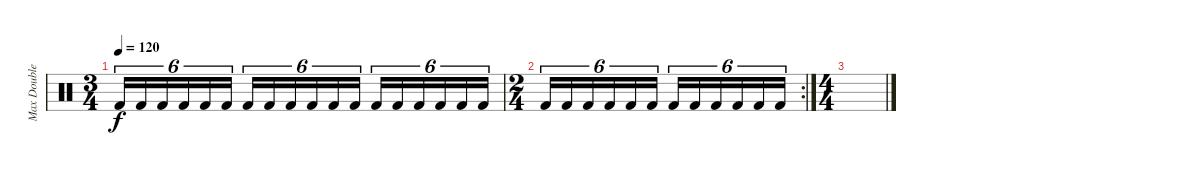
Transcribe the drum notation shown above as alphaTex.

\track ("Max Double Pedal" "Max Double") {instrument percussion}
\staff {score}
\articulation defaults
\ts (3 4)
\tempo 120
\clef neutral
\ks c "Kick (hit) 2".16{tu (6 4) dy f} "Kick (hit) 2".16{tu (6 4)} "Kick (hit) 2".16{tu (6 4)} "Kick (hit) 2".16{tu (6 4)} "Kick (hit) 2".16{tu (6 4)} "Kick (hit) 2".16{tu (6 4)} "Kick (hit) 2".16{tu (6 4)} "Kick (hit) 2".16{tu (6 4)} "Kick (hit) 2".16{tu (6 4)} "Kick (hit) 2".16{tu (6 4)} "Kick (hit) 2".16{tu (6 4)} "Kick (hit) 2".16{tu (6 4)} "Kick (hit) 2".16{tu (6 4)} "Kick (hit) 2".16{tu (6 4)} "Kick (hit) 2".16{tu (6 4)} "Kick (hit) 2".16{tu (6 4)} "Kick (hit) 2".16{tu (6 4)} "Kick (hit) 2".16{tu (6 4)}
|
\rc 2
\ts (2 4)
"Kick (hit) 2".16{tu (6 4)} "Kick (hit) 2".16{tu (6 4)} "Kick (hit) 2".16{tu (6 4)} "Kick (hit) 2".16{tu (6 4)} "Kick (hit) 2".16{tu (6 4)} "Kick (hit) 2".16{tu (6 4)} "Kick (hit) 2".16{tu (6 4)} "Kick (hit) 2".16{tu (6 4)} "Kick (hit) 2".16{tu (6 4)} "Kick (hit) 2".16{tu (6 4)} "Kick (hit) 2".16{tu (6 4)} "Kick (hit) 2".16{tu (6 4)} |
\ts (4 4)
